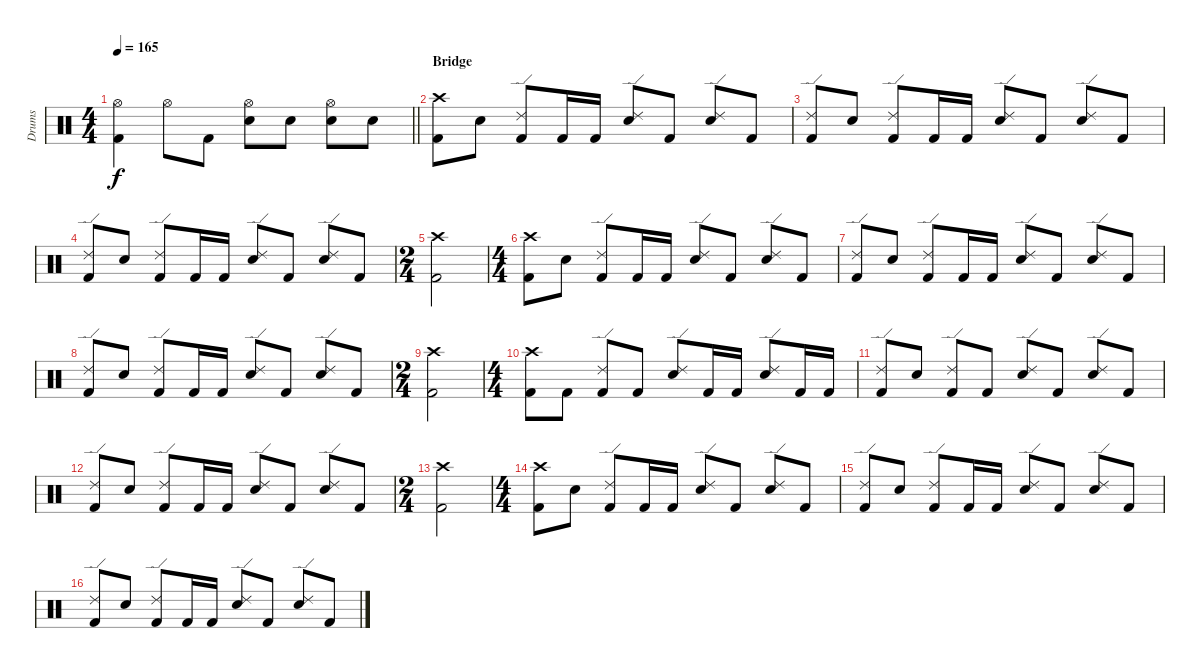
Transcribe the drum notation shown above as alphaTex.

\track ("Drums" "Drums") {instrument percussion}
\staff {score}
\articulation defaults
\ts (4 4)
\tempo 165
\clef neutral
\barLineRight lightlight
\ks c
("Hi-Hat (open)" "Kick (hit) 2").4{dy f} "Hi-Hat (open)".8 "Kick (hit) 2".8 ("Hi-Hat (open)" "Snare (hit) 2").8 "Snare (hit) 2".8 ("Hi-Hat (open)" "Snare (hit) 2").8 "Snare (hit) 2".8 |
\section ("" "Bridge")
("Crash high (hit)" "Kick (hit) 2").8 "Snare (hit) 2".8 ("Ride (edge) 2" "Kick (hit) 2").8 "Kick (hit) 2".16 "Kick (hit) 2".16 ("Ride (edge) 2" "Snare (hit) 2").8 "Kick (hit) 2".8 ("Ride (edge) 2" "Snare (hit) 2").8 "Kick (hit) 2".8 |
("Ride (edge) 2" "Kick (hit) 2").8 "Snare (hit) 2".8 ("Ride (edge) 2" "Kick (hit) 2").8 "Kick (hit) 2".16 "Kick (hit) 2".16 ("Ride (edge) 2" "Snare (hit) 2").8 "Kick (hit) 2".8 ("Ride (edge) 2" "Snare (hit) 2").8 "Kick (hit) 2".8 |
("Ride (edge) 2" "Kick (hit) 2").8 "Snare (hit) 2".8 ("Ride (edge) 2" "Kick (hit) 2").8 "Kick (hit) 2".16 "Kick (hit) 2".16 ("Ride (edge) 2" "Snare (hit) 2").8 "Kick (hit) 2".8 ("Ride (edge) 2" "Snare (hit) 2").8 "Kick (hit) 2".8 |
\ts (2 4)
("Crash high (hit)" "Kick (hit) 2").2 |
\ts (4 4)
("Crash high (hit)" "Kick (hit) 2").8 "Snare (hit) 2".8 ("Ride (edge) 2" "Kick (hit) 2").8 "Kick (hit) 2".16 "Kick (hit) 2".16 ("Ride (edge) 2" "Snare (hit) 2").8 "Kick (hit) 2".8 ("Ride (edge) 2" "Snare (hit) 2").8 "Kick (hit) 2".8 |
("Ride (edge) 2" "Kick (hit) 2").8 "Snare (hit) 2".8 ("Ride (edge) 2" "Kick (hit) 2").8 "Kick (hit) 2".16 "Kick (hit) 2".16 ("Ride (edge) 2" "Snare (hit) 2").8 "Kick (hit) 2".8 ("Ride (edge) 2" "Snare (hit) 2").8 "Kick (hit) 2".8 |
("Ride (edge) 2" "Kick (hit) 2").8 "Snare (hit) 2".8 ("Ride (edge) 2" "Kick (hit) 2").8 "Kick (hit) 2".16 "Kick (hit) 2".16 ("Ride (edge) 2" "Snare (hit) 2").8 "Kick (hit) 2".8 ("Ride (edge) 2" "Snare (hit) 2").8 "Kick (hit) 2".8 |
\ts (2 4)
("Crash high (hit)" "Kick (hit) 2").2 |
\ts (4 4)
("Crash high (hit)" "Kick (hit) 2").8 "Kick (hit) 2".8 ("Ride (edge) 2" "Kick (hit) 2").8 "Kick (hit) 2".8 ("Ride (edge) 2" "Snare (hit) 2").8 "Kick (hit) 2".16 "Kick (hit) 2".16 ("Ride (edge) 2" "Snare (hit) 2").8 "Kick (hit) 2".16 "Kick (hit) 2".16 |
("Ride (edge) 2" "Kick (hit) 2").8 "Snare (hit) 2".8 ("Ride (edge) 2" "Kick (hit) 2").8 "Kick (hit) 2".8 ("Ride (edge) 2" "Snare (hit) 2").8 "Kick (hit) 2".8 ("Ride (edge) 2" "Snare (hit) 2").8 "Kick (hit) 2".8 |
("Ride (edge) 2" "Kick (hit) 2").8 "Snare (hit) 2".8 ("Ride (edge) 2" "Kick (hit) 2").8 "Kick (hit) 2".16 "Kick (hit) 2".16 ("Ride (edge) 2" "Snare (hit) 2").8 "Kick (hit) 2".8 ("Ride (edge) 2" "Snare (hit) 2").8 "Kick (hit) 2".8 |
\ts (2 4)
("Crash high (hit)" "Kick (hit) 2").2 |
\ts (4 4)
("Crash high (hit)" "Kick (hit) 2").8 "Snare (hit) 2".8 ("Ride (edge) 2" "Kick (hit) 2").8 "Kick (hit) 2".16 "Kick (hit) 2".16 ("Ride (edge) 2" "Snare (hit) 2").8 "Kick (hit) 2".8 ("Ride (edge) 2" "Snare (hit) 2").8 "Kick (hit) 2".8 |
("Ride (edge) 2" "Kick (hit) 2").8 "Snare (hit) 2".8 ("Ride (edge) 2" "Kick (hit) 2").8 "Kick (hit) 2".16 "Kick (hit) 2".16 ("Ride (edge) 2" "Snare (hit) 2").8 "Kick (hit) 2".8 ("Ride (edge) 2" "Snare (hit) 2").8 "Kick (hit) 2".8 |
("Ride (edge) 2" "Kick (hit) 2").8 "Snare (hit) 2".8 ("Ride (edge) 2" "Kick (hit) 2").8 "Kick (hit) 2".16 "Kick (hit) 2".16 ("Ride (edge) 2" "Snare (hit) 2").8 "Kick (hit) 2".8 ("Ride (edge) 2" "Snare (hit) 2").8 "Kick (hit) 2".8
